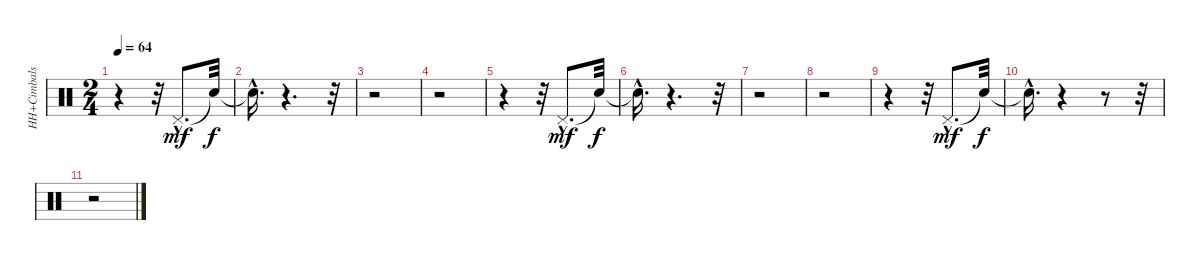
\track ("HH+Cimbals" "HH+Cimbals") {instrument percussion}
\staff {score}
\articulation defaults
\ts (2 4)
\tempo 64
\clef neutral
\ks c
r.4{dy f} r.32 "Pedal Hi-Hat (hit)"{hac}.8{d dy mf} "Snare (hit)"{t}.32{dy f} |
"Snare (hit)"{hac t}.16{d} r.4{d} r.32 |
r.2 |
r.2 |
r.4 r.32 "Pedal Hi-Hat (hit)"{hac}.8{d dy mf} "Snare (hit)"{t}.32{dy f} |
"Snare (hit)"{hac t}.16{d} r.4{d} r.32 |
r.2 |
r.2 |
r.4 r.32 "Pedal Hi-Hat (hit)"{hac}.8{d dy mf} "Snare (hit)"{t}.32{dy f} |
"Snare (hit)"{hac t}.16{d} r.4 r.8 r.32 |
r.2
